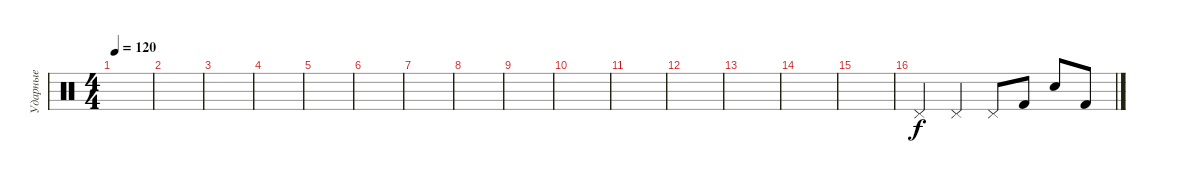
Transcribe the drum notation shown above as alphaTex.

\track ("Ударные" "Ударные") {instrument percussion}
\staff {score}
\articulation defaults
\ts (4 4)
\tempo 120
\clef neutral
\ks c
|
|
|
|
|
|
|
|
|
|
|
|
|
|
|
"Pedal Hi-Hat (hit)".4 "Pedal Hi-Hat (hit)".4 "Pedal Hi-Hat (hit)".8 "Kick (hit) 2".8 "Electric Snare (hit)".8 "Kick (hit) 2".8
